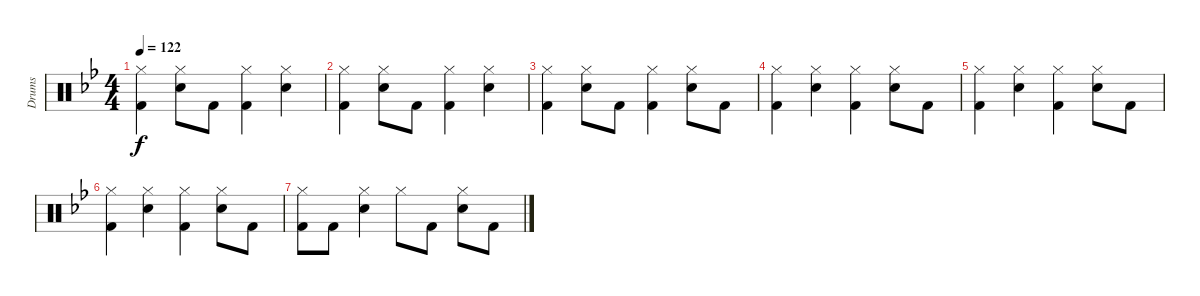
\track ("Drums" "Drums") {instrument percussion}
\staff {score}
\articulation defaults
\ts (4 4)
\tempo 122
\clef neutral
\ks gminor
("Hi-Hat (closed)" "Kick (hit) 2").4{dy f} ("Hi-Hat (closed)" "Electric Snare (hit)").8 "Kick (hit) 2".8 ("Hi-Hat (closed)" "Kick (hit) 2").4 ("Hi-Hat (closed)" "Electric Snare (hit)").4 |
("Hi-Hat (closed)" "Kick (hit) 2").4 ("Hi-Hat (closed)" "Electric Snare (hit)").8 "Kick (hit) 2".8 ("Hi-Hat (closed)" "Kick (hit) 2").4 ("Hi-Hat (closed)" "Electric Snare (hit)").4 |
("Hi-Hat (closed)" "Kick (hit) 2").4 ("Hi-Hat (closed)" "Electric Snare (hit)").8 "Kick (hit) 2".8 ("Hi-Hat (closed)" "Kick (hit) 2").4 ("Hi-Hat (closed)" "Electric Snare (hit)").8 "Kick (hit) 2".8 |
("Hi-Hat (closed)" "Kick (hit) 2").4{volume 0} ("Hi-Hat (closed)" "Electric Snare (hit)").4 ("Hi-Hat (closed)" "Kick (hit) 2").4 ("Hi-Hat (closed)" "Electric Snare (hit)").8 "Kick (hit) 2".8 |
("Hi-Hat (closed)" "Kick (hit) 2").4 ("Hi-Hat (closed)" "Electric Snare (hit)").4 ("Hi-Hat (closed)" "Kick (hit) 2").4 ("Hi-Hat (closed)" "Electric Snare (hit)").8 "Kick (hit) 2".8 |
("Hi-Hat (closed)" "Kick (hit) 2").4 ("Hi-Hat (closed)" "Electric Snare (hit)").4 ("Hi-Hat (closed)" "Kick (hit) 2").4 ("Hi-Hat (closed)" "Electric Snare (hit)").8 "Kick (hit) 2".8 |
("Hi-Hat (closed)" "Kick (hit) 2").8 "Kick (hit) 2".8 ("Hi-Hat (closed)" "Electric Snare (hit)").4 "Hi-Hat (closed)".8 "Kick (hit) 2".8 ("Hi-Hat (closed)" "Electric Snare (hit)").8 "Kick (hit) 2".8
